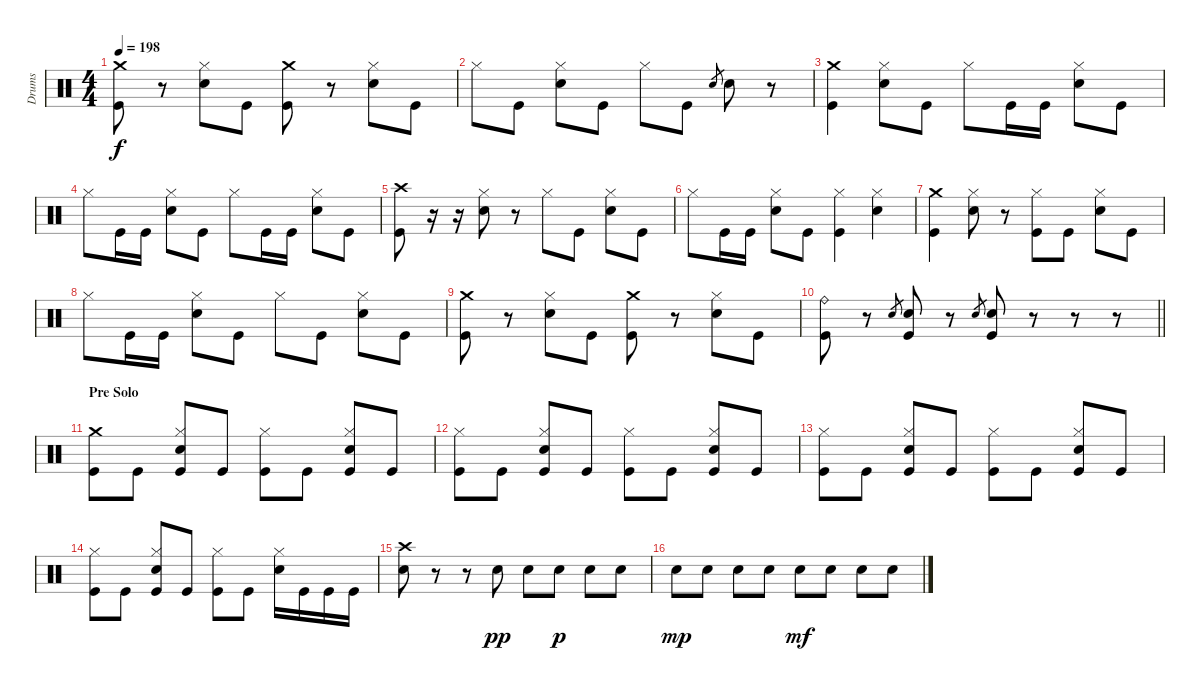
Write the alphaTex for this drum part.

\track ("Drums" "Drums") {instrument percussion}
\staff {score}
\articulation defaults
\ts (4 4)
\tempo 198
\clef neutral
\ks c
("Crash medium (hit)" "Kick (hit)").8{dy f} r.8 ("Hi-Hat (closed)" "Electric Snare (hit)").8 "Kick (hit)".8 ("Crash medium (hit)" "Kick (hit)").8 r.8 ("Hi-Hat (closed)" "Electric Snare (hit)").8 "Kick (hit)".8 |
"Hi-Hat (closed)".8 "Kick (hit)".8 ("Electric Snare (hit)" "Hi-Hat (closed)").8 "Kick (hit)".8 "Hi-Hat (closed)".8 "Kick (hit)".8 "Electric Snare (hit)".8{gr} "Electric Snare (hit)".8 r.8 |
("Crash medium (hit)" "Kick (hit)").4 ("Hi-Hat (closed)" "Electric Snare (hit)").8 "Kick (hit)".8 "Hi-Hat (closed)".8 "Kick (hit)".16 "Kick (hit)".16 ("Hi-Hat (closed)" "Electric Snare (hit)").8 "Kick (hit)".8 |
"Hi-Hat (closed)".8 "Kick (hit)".16 "Kick (hit)".16 ("Hi-Hat (closed)" "Electric Snare (hit)").8 "Kick (hit)".8 "Hi-Hat (closed)".8 "Kick (hit)".16 "Kick (hit)".16 ("Hi-Hat (closed)" "Electric Snare (hit)").8 "Kick (hit)".8 |
("Crash high (hit)" "Kick (hit)").8 r.16 r.16 ("Hi-Hat (closed)" "Electric Snare (hit)").8 r.8 "Hi-Hat (closed)".8 "Kick (hit)".8 ("Hi-Hat (closed)" "Electric Snare (hit)").8 "Kick (hit)".8 |
"Hi-Hat (closed)".8 "Kick (hit)".16 "Kick (hit)".16 ("Hi-Hat (closed)" "Electric Snare (hit)").8 "Kick (hit)".8 ("Hi-Hat (closed)" "Kick (hit)").4 ("Hi-Hat (closed)" "Electric Snare (hit)").4 |
("Crash medium (hit)" "Kick (hit)").4 ("Hi-Hat (closed)" "Electric Snare (hit)").8 r.8 ("Hi-Hat (closed)" "Kick (hit)").8 "Kick (hit)".8 ("Hi-Hat (closed)" "Electric Snare (hit)").8 "Kick (hit)".8 |
"Hi-Hat (closed)".8 "Kick (hit)".16 "Kick (hit)".16 ("Hi-Hat (closed)" "Electric Snare (hit)").8 "Kick (hit)".8 "Hi-Hat (closed)".8 "Kick (hit)".8 ("Hi-Hat (closed)" "Electric Snare (hit)").8 "Kick (hit)".8 |
("Crash medium (hit)" "Kick (hit)").8 r.8 ("Hi-Hat (closed)" "Electric Snare (hit)").8 "Kick (hit)".8 ("Crash medium (hit)" "Kick (hit)").8 r.8 ("Hi-Hat (closed)" "Electric Snare (hit)").8 "Kick (hit)".8 |
\barLineRight lightlight
("Ride (bell)" "Kick (hit)").8 r.8 "Electric Snare (hit)".8{gr} ("Electric Snare (hit)" "Kick (hit)").8 r.8 "Electric Snare (hit)".8{gr} ("Electric Snare (hit)" "Kick (hit)").8 r.8 r.8 r.8 |
\section ("" "Pre Solo")
("Crash medium (hit)" "Kick (hit)").8 "Kick (hit)".8 ("Hi-Hat (closed)" "Electric Snare (hit)" "Kick (hit)").8 "Kick (hit)".8 ("Hi-Hat (closed)" "Kick (hit)").8 "Kick (hit)".8 ("Hi-Hat (closed)" "Electric Snare (hit)" "Kick (hit)").8 "Kick (hit)".8 |
("Hi-Hat (closed)" "Kick (hit)").8 "Kick (hit)".8 ("Hi-Hat (closed)" "Electric Snare (hit)" "Kick (hit)").8 "Kick (hit)".8 ("Hi-Hat (closed)" "Kick (hit)").8 "Kick (hit)".8 ("Hi-Hat (closed)" "Electric Snare (hit)" "Kick (hit)").8 "Kick (hit)".8 |
("Hi-Hat (closed)" "Kick (hit)").8 "Kick (hit)".8 ("Hi-Hat (closed)" "Electric Snare (hit)" "Kick (hit)").8 "Kick (hit)".8 ("Hi-Hat (closed)" "Kick (hit)").8 "Kick (hit)".8 ("Hi-Hat (closed)" "Electric Snare (hit)" "Kick (hit)").8 "Kick (hit)".8 |
("Hi-Hat (closed)" "Kick (hit)").8 "Kick (hit)".8 ("Hi-Hat (closed)" "Electric Snare (hit)" "Kick (hit)").8 "Kick (hit)".8 ("Hi-Hat (closed)" "Kick (hit)").8 "Kick (hit)".8 ("Hi-Hat (closed)" "Electric Snare (hit)").16 "Kick (hit)".16 "Kick (hit)".16 "Kick (hit)".16 |
("Crash high (hit)" "Electric Snare (hit)").8 r.8 r.8 "Electric Snare (hit)".8{dy pp} "Electric Snare (hit)".8 "Electric Snare (hit)".8{dy p} "Electric Snare (hit)".8 "Electric Snare (hit)".8 |
"Electric Snare (hit)".8{dy mp} "Electric Snare (hit)".8 "Electric Snare (hit)".8 "Electric Snare (hit)".8 "Electric Snare (hit)".8{dy mf} "Electric Snare (hit)".8 "Electric Snare (hit)".8 "Electric Snare (hit)".8
